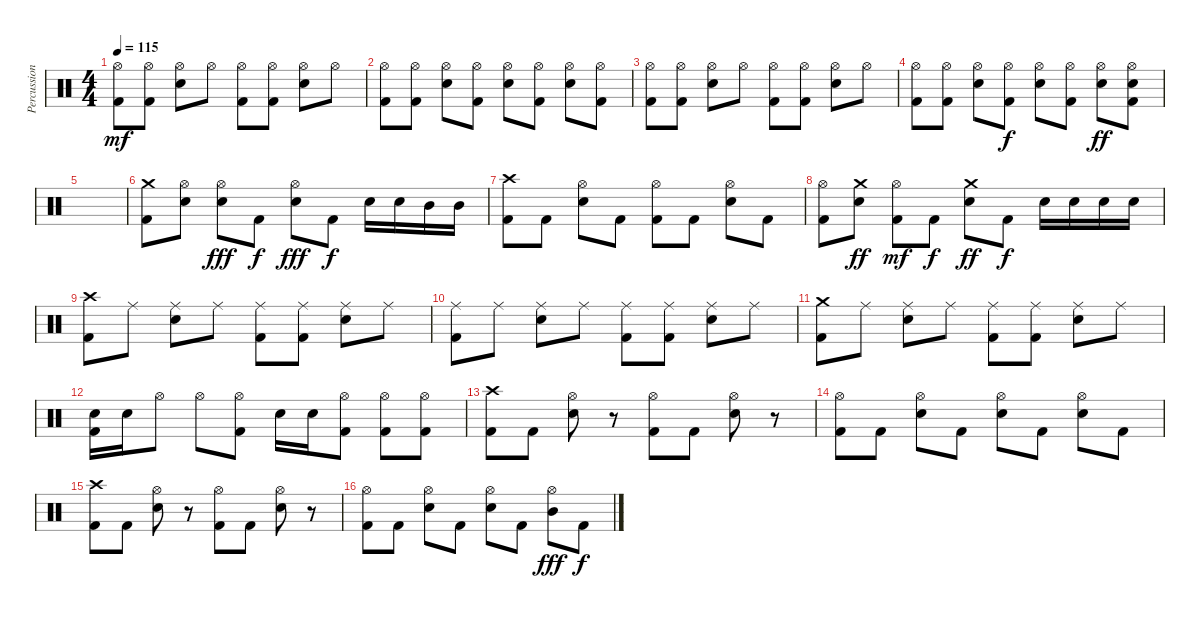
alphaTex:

\track ("Percussion" "Percussion") {instrument percussion}
\staff {score}
\articulation defaults
\ts (4 4)
\tempo 115
\clef neutral
\ks c
("Hi-Hat (open)" "Kick (hit) 2").8{dy mf} ("Hi-Hat (open)" "Kick (hit) 2").8 ("Hi-Hat (open)" "Electric Snare (hit)").8 "Hi-Hat (open)".8 ("Hi-Hat (open)" "Kick (hit) 2").8 ("Hi-Hat (open)" "Kick (hit) 2").8 ("Hi-Hat (open)" "Electric Snare (hit)").8 "Hi-Hat (open)".8 |
("Hi-Hat (open)" "Kick (hit) 2").8 ("Hi-Hat (open)" "Kick (hit) 2").8 ("Hi-Hat (open)" "Electric Snare (hit)").8 ("Hi-Hat (open)" "Kick (hit) 2").8 ("Hi-Hat (open)" "Electric Snare (hit)").8 ("Hi-Hat (open)" "Kick (hit) 2").8 ("Hi-Hat (open)" "Electric Snare (hit)").8 ("Hi-Hat (open)" "Kick (hit) 2").8 |
("Hi-Hat (open)" "Kick (hit) 2").8 ("Hi-Hat (open)" "Kick (hit) 2").8 ("Hi-Hat (open)" "Electric Snare (hit)").8 "Hi-Hat (open)".8 ("Hi-Hat (open)" "Kick (hit) 2").8 ("Hi-Hat (open)" "Kick (hit) 2").8 ("Hi-Hat (open)" "Electric Snare (hit)").8 "Hi-Hat (open)".8 |
("Hi-Hat (open)" "Kick (hit) 2").8 ("Hi-Hat (open)" "Kick (hit) 2").8 ("Hi-Hat (open)" "Electric Snare (hit)").8 ("Hi-Hat (open)" "Kick (hit) 2").8{dy f} ("Hi-Hat (open)" "Electric Snare (hit)").8 ("Hi-Hat (open)" "Kick (hit) 2").8 ("Hi-Hat (open)" "Electric Snare (hit)").8{dy ff} ("Hi-Hat (open)" "Electric Snare (hit)" "Kick (hit) 2").8 |
|
("Crash medium (hit)" "Kick (hit) 2").8 ("Hi-Hat (open)" "Electric Snare (hit)").8 ("Hi-Hat (open)" "Electric Snare (hit)").8{dy fff} "Kick (hit) 2".8{dy f} ("Hi-Hat (open)" "Electric Snare (hit)").8{dy fff} "Kick (hit) 2".8{dy f} "Electric Snare (hit)".16 "Electric Snare (hit)".16 "Mid Tom (hit)".16 "Mid Tom (hit)".16 |
("Crash high (hit)" "Kick (hit) 2").8 "Kick (hit) 2".8 ("Hi-Hat (open)" "Electric Snare (hit)").8 "Kick (hit) 2".8 ("Hi-Hat (open)" "Kick (hit) 2").8 "Kick (hit) 2".8 ("Hi-Hat (open)" "Electric Snare (hit)").8 "Kick (hit) 2".8 |
("Hi-Hat (open)" "Kick (hit) 2").8 ("Crash medium (hit)" "Electric Snare (hit)").8{dy ff} ("Hi-Hat (open)" "Kick (hit) 2").8{dy mf} "Kick (hit) 2".8{dy f} ("Crash medium (hit)" "Electric Snare (hit)").8{dy ff} "Kick (hit) 2".8{dy f} "Electric Snare (hit)".16 "Electric Snare (hit)".16 "Electric Snare (hit)".16 "Electric Snare (hit)".16 |
("Crash high (hit)" "Kick (hit) 2").8 "Ride (middle)".8 ("Ride (middle)" "Electric Snare (hit)").8 "Ride (middle)".8 ("Ride (middle)" "Kick (hit) 2").8 ("Ride (middle)" "Kick (hit) 2").8 ("Ride (middle)" "Electric Snare (hit)").8 "Ride (middle)".8 |
("Ride (middle)" "Kick (hit) 2").8 "Ride (middle)".8 ("Ride (middle)" "Electric Snare (hit)").8 "Ride (middle)".8 ("Ride (middle)" "Kick (hit) 2").8 ("Ride (middle)" "Kick (hit) 2").8 ("Ride (middle)" "Electric Snare (hit)").8 "Ride (middle)".8 |
("Crash medium (hit)" "Kick (hit) 2").8 "Ride (middle)".8 ("Ride (middle)" "Electric Snare (hit)").8 "Ride (middle)".8 ("Ride (middle)" "Kick (hit) 2").8 ("Ride (middle)" "Kick (hit) 2").8 ("Ride (middle)" "Electric Snare (hit)").8 "Ride (middle)".8 |
("Electric Snare (hit)" "Kick (hit) 2").16 "Electric Snare (hit)".16 "Hi-Hat (open)".8 "Hi-Hat (open)".8 ("Hi-Hat (open)" "Kick (hit) 2").8 "Electric Snare (hit)".16 "Electric Snare (hit)".16 ("Hi-Hat (open)" "Kick (hit) 2").8 ("Hi-Hat (open)" "Kick (hit) 2").8 ("Hi-Hat (open)" "Kick (hit) 2").8 |
("Crash high (hit)" "Kick (hit) 2").8 "Kick (hit) 2".8 ("Hi-Hat (open)" "Electric Snare (hit)").8 r.8 ("Hi-Hat (open)" "Kick (hit) 2").8 "Kick (hit) 2".8 ("Hi-Hat (open)" "Electric Snare (hit)").8 r.8 |
("Hi-Hat (open)" "Kick (hit) 2").8 "Kick (hit) 2".8 ("Hi-Hat (open)" "Electric Snare (hit)").8 "Kick (hit) 2".8 ("Hi-Hat (open)" "Electric Snare (hit)").8 "Kick (hit) 2".8 ("Hi-Hat (open)" "Electric Snare (hit)").8 "Kick (hit) 2".8 |
("Crash high (hit)" "Kick (hit) 2").8 "Kick (hit) 2".8 ("Hi-Hat (open)" "Electric Snare (hit)").8 r.8 ("Hi-Hat (open)" "Kick (hit) 2").8 "Kick (hit) 2".8 ("Hi-Hat (open)" "Electric Snare (hit)").8 r.8 |
("Hi-Hat (open)" "Kick (hit) 2").8 "Kick (hit) 2".8 ("Hi-Hat (open)" "Electric Snare (hit)").8 "Kick (hit) 2".8 ("Hi-Hat (open)" "Electric Snare (hit)").8 "Kick (hit) 2".8 ("Hi-Hat (open)" "Mid Tom (hit)").8{dy fff} "Kick (hit) 2".8{dy f}
